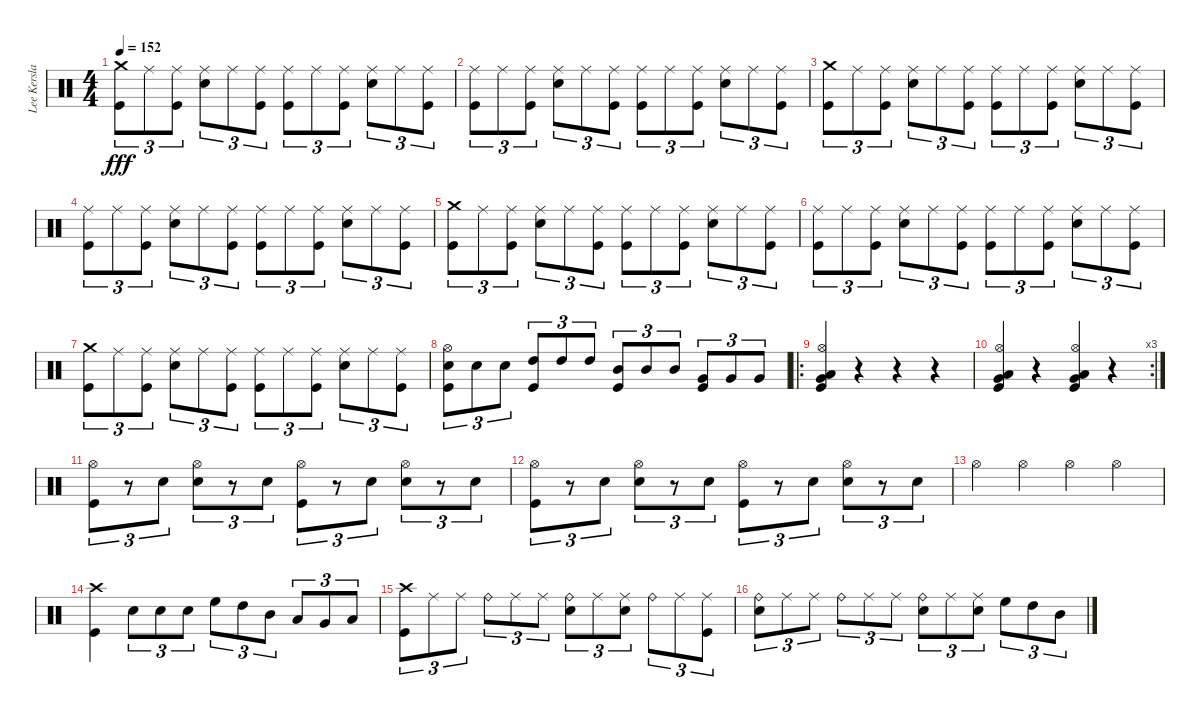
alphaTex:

\track ("Lee Kerslake" "Lee Kersla") {instrument percussion}
\staff {score}
\articulation defaults
\ts (4 4)
\tempo 152
\clef neutral
\ks c
("Crash medium (hit)" "Kick (hit)").8{tu (3 2) dy fff} "Ride (middle)".8{tu (3 2)} ("Ride (middle)" "Kick (hit)").8{tu (3 2)} ("Ride (middle)" "Electric Snare (hit)").8{tu (3 2)} "Ride (middle)".8{tu (3 2)} ("Ride (middle)" "Kick (hit)").8{tu (3 2)} ("Ride (middle)" "Kick (hit)").8{tu (3 2)} "Ride (middle)".8{tu (3 2)} ("Ride (middle)" "Kick (hit)").8{tu (3 2)} ("Ride (middle)" "Electric Snare (hit)").8{tu (3 2)} "Ride (middle)".8{tu (3 2)} ("Ride (middle)" "Kick (hit)").8{tu (3 2)} |
("Ride (middle)" "Kick (hit)").8{tu (3 2)} "Ride (middle)".8{tu (3 2)} ("Ride (middle)" "Kick (hit)").8{tu (3 2)} ("Ride (middle)" "Electric Snare (hit)").8{tu (3 2)} "Ride (middle)".8{tu (3 2)} ("Ride (middle)" "Kick (hit)").8{tu (3 2)} ("Ride (middle)" "Kick (hit)").8{tu (3 2)} "Ride (middle)".8{tu (3 2)} ("Ride (middle)" "Kick (hit)").8{tu (3 2)} ("Ride (middle)" "Electric Snare (hit)").8{tu (3 2)} "Ride (middle)".8{tu (3 2)} ("Ride (middle)" "Kick (hit)").8{tu (3 2)} |
("Crash medium (hit)" "Kick (hit)").8{tu (3 2)} "Ride (middle)".8{tu (3 2)} ("Ride (middle)" "Kick (hit)").8{tu (3 2)} ("Ride (middle)" "Electric Snare (hit)").8{tu (3 2)} "Ride (middle)".8{tu (3 2)} ("Ride (middle)" "Kick (hit)").8{tu (3 2)} ("Ride (middle)" "Kick (hit)").8{tu (3 2)} "Ride (middle)".8{tu (3 2)} ("Ride (middle)" "Kick (hit)").8{tu (3 2)} ("Ride (middle)" "Electric Snare (hit)").8{tu (3 2)} "Ride (middle)".8{tu (3 2)} ("Ride (middle)" "Kick (hit)").8{tu (3 2)} |
("Ride (middle)" "Kick (hit)").8{tu (3 2)} "Ride (middle)".8{tu (3 2)} ("Ride (middle)" "Kick (hit)").8{tu (3 2)} ("Ride (middle)" "Electric Snare (hit)").8{tu (3 2)} "Ride (middle)".8{tu (3 2)} ("Ride (middle)" "Kick (hit)").8{tu (3 2)} ("Ride (middle)" "Kick (hit)").8{tu (3 2)} "Ride (middle)".8{tu (3 2)} ("Ride (middle)" "Kick (hit)").8{tu (3 2)} ("Ride (middle)" "Electric Snare (hit)").8{tu (3 2)} "Ride (middle)".8{tu (3 2)} ("Ride (middle)" "Kick (hit)").8{tu (3 2)} |
("Crash medium (hit)" "Kick (hit)").8{tu (3 2)} "Ride (middle)".8{tu (3 2)} ("Ride (middle)" "Kick (hit)").8{tu (3 2)} ("Ride (middle)" "Electric Snare (hit)").8{tu (3 2)} "Ride (middle)".8{tu (3 2)} ("Ride (middle)" "Kick (hit)").8{tu (3 2)} ("Ride (middle)" "Kick (hit)").8{tu (3 2)} "Ride (middle)".8{tu (3 2)} ("Ride (middle)" "Kick (hit)").8{tu (3 2)} ("Ride (middle)" "Electric Snare (hit)").8{tu (3 2)} "Ride (middle)".8{tu (3 2)} ("Ride (middle)" "Kick (hit)").8{tu (3 2)} |
("Ride (middle)" "Kick (hit)").8{tu (3 2)} "Ride (middle)".8{tu (3 2)} ("Ride (middle)" "Kick (hit)").8{tu (3 2)} ("Ride (middle)" "Electric Snare (hit)").8{tu (3 2)} "Ride (middle)".8{tu (3 2)} ("Ride (middle)" "Kick (hit)").8{tu (3 2)} ("Ride (middle)" "Kick (hit)").8{tu (3 2)} "Ride (middle)".8{tu (3 2)} ("Ride (middle)" "Kick (hit)").8{tu (3 2)} ("Ride (middle)" "Electric Snare (hit)").8{tu (3 2)} "Ride (middle)".8{tu (3 2)} ("Ride (middle)" "Kick (hit)").8{tu (3 2)} |
("Crash medium (hit)" "Kick (hit)").8{tu (3 2)} "Ride (middle)".8{tu (3 2)} ("Ride (middle)" "Kick (hit)").8{tu (3 2)} ("Ride (middle)" "Electric Snare (hit)").8{tu (3 2)} "Ride (middle)".8{tu (3 2)} ("Ride (middle)" "Kick (hit)").8{tu (3 2)} ("Ride (middle)" "Kick (hit)").8{tu (3 2)} "Ride (middle)".8{tu (3 2)} ("Ride (middle)" "Kick (hit)").8{tu (3 2)} ("Ride (middle)" "Electric Snare (hit)").8{tu (3 2)} "Ride (middle)".8{tu (3 2)} ("Ride (middle)" "Kick (hit)").8{tu (3 2)} |
("Electric Snare (hit)" "Hi-Hat (open)" "Kick (hit)").8{tu (3 2)} "Electric Snare (hit)".8{tu (3 2)} "Electric Snare (hit)".8{tu (3 2)} ("High Tom (hit)" "Kick (hit)").8{tu (3 2)} "High Tom (hit)".8{tu (3 2)} "High Tom (hit)".8{tu (3 2)} ("Mid Tom (hit)" "Kick (hit)").8{tu (3 2)} "Mid Tom (hit)".8{tu (3 2)} "Mid Tom (hit)".8{tu (3 2)} ("Very Low Tom (hit)" "Kick (hit)").8{tu (3 2)} "Very Low Tom (hit)".8{tu (3 2)} "Very Low Tom (hit)".8{tu (3 2)} |
\ro
("Very Low Tom (hit)" "Hi-Hat (open)" "Low Floor Tom (hit)" "Kick (hit)").4 r.4 r.4 r.4 |
\rc 3
("Very Low Tom (hit)" "Hi-Hat (open)" "Low Floor Tom (hit)" "Kick (hit)").4 r.4 ("Very Low Tom (hit)" "Hi-Hat (open)" "Low Floor Tom (hit)" "Kick (hit)").4 r.4 |
("Hi-Hat (open)" "Kick (hit)").8{tu (3 2)} r.8{tu (3 2)} "Electric Snare (hit)".8{tu (3 2)} ("Hi-Hat (open)" "Electric Snare (hit)").8{tu (3 2)} r.8{tu (3 2)} "Electric Snare (hit)".8{tu (3 2)} ("Hi-Hat (open)" "Kick (hit)").8{tu (3 2)} r.8{tu (3 2)} "Electric Snare (hit)".8{tu (3 2)} ("Hi-Hat (open)" "Electric Snare (hit)").8{tu (3 2)} r.8{tu (3 2)} "Electric Snare (hit)".8{tu (3 2)} |
("Hi-Hat (open)" "Kick (hit)").8{tu (3 2)} r.8{tu (3 2)} "Electric Snare (hit)".8{tu (3 2)} ("Hi-Hat (open)" "Electric Snare (hit)").8{tu (3 2)} r.8{tu (3 2)} "Electric Snare (hit)".8{tu (3 2)} ("Hi-Hat (open)" "Kick (hit)").8{tu (3 2)} r.8{tu (3 2)} "Electric Snare (hit)".8{tu (3 2)} ("Hi-Hat (open)" "Electric Snare (hit)").8{tu (3 2)} r.8{tu (3 2)} "Electric Snare (hit)".8{tu (3 2)} |
"Hi-Hat (open)".4 "Hi-Hat (open)".4 "Hi-Hat (open)".4 "Hi-Hat (open)".4 |
("Crash high (hit)" "Kick (hit)").4 "Electric Snare (hit)".8{tu (3 2)} "Electric Snare (hit)".8{tu (3 2)} "Electric Snare (hit)".8{tu (3 2)} "High Floor Tom (hit)".8{tu (3 2)} "High Tom (hit)".8{tu (3 2)} "Mid Tom (hit)".8{tu (3 2)} "Low Tom (hit)".8{tu (3 2)} "Very Low Tom (hit)".8{tu (3 2)} "Low Floor Tom (hit)".8{tu (3 2)} |
("Kick (hit)" "Crash high (hit)").8{tu (3 2)} "Ride (middle)".8{tu (3 2)} "Ride (middle)".8{tu (3 2)} "Ride (bell)".8{tu (3 2)} "Ride (middle)".8{tu (3 2)} "Ride (middle)".8{tu (3 2)} ("Electric Snare (hit)" "Ride (bell)").8{tu (3 2)} "Ride (middle)".8{tu (3 2)} ("Ride (middle)" "Electric Snare (hit)").8{tu (3 2)} "Ride (bell)".8{tu (3 2)} "Ride (middle)".8{tu (3 2)} ("Ride (middle)" "Kick (hit)").8{tu (3 2)} |
("Snare (hit)" "Ride (bell)").8{tu (3 2)} "Ride (middle)".8{tu (3 2)} "Ride (middle)".8{tu (3 2)} "Ride (bell)".8{tu (3 2)} "Ride (middle)".8{tu (3 2)} "Ride (middle)".8{tu (3 2)} ("Electric Snare (hit)" "Ride (bell)").8{tu (3 2)} "Ride (middle)".8{tu (3 2)} ("Ride (middle)" "Electric Snare (hit)").8{tu (3 2)} "High Floor Tom (hit)".8{tu (3 2)} "High Tom (hit)".8{tu (3 2)} "Mid Tom (hit)".8{tu (3 2)}
